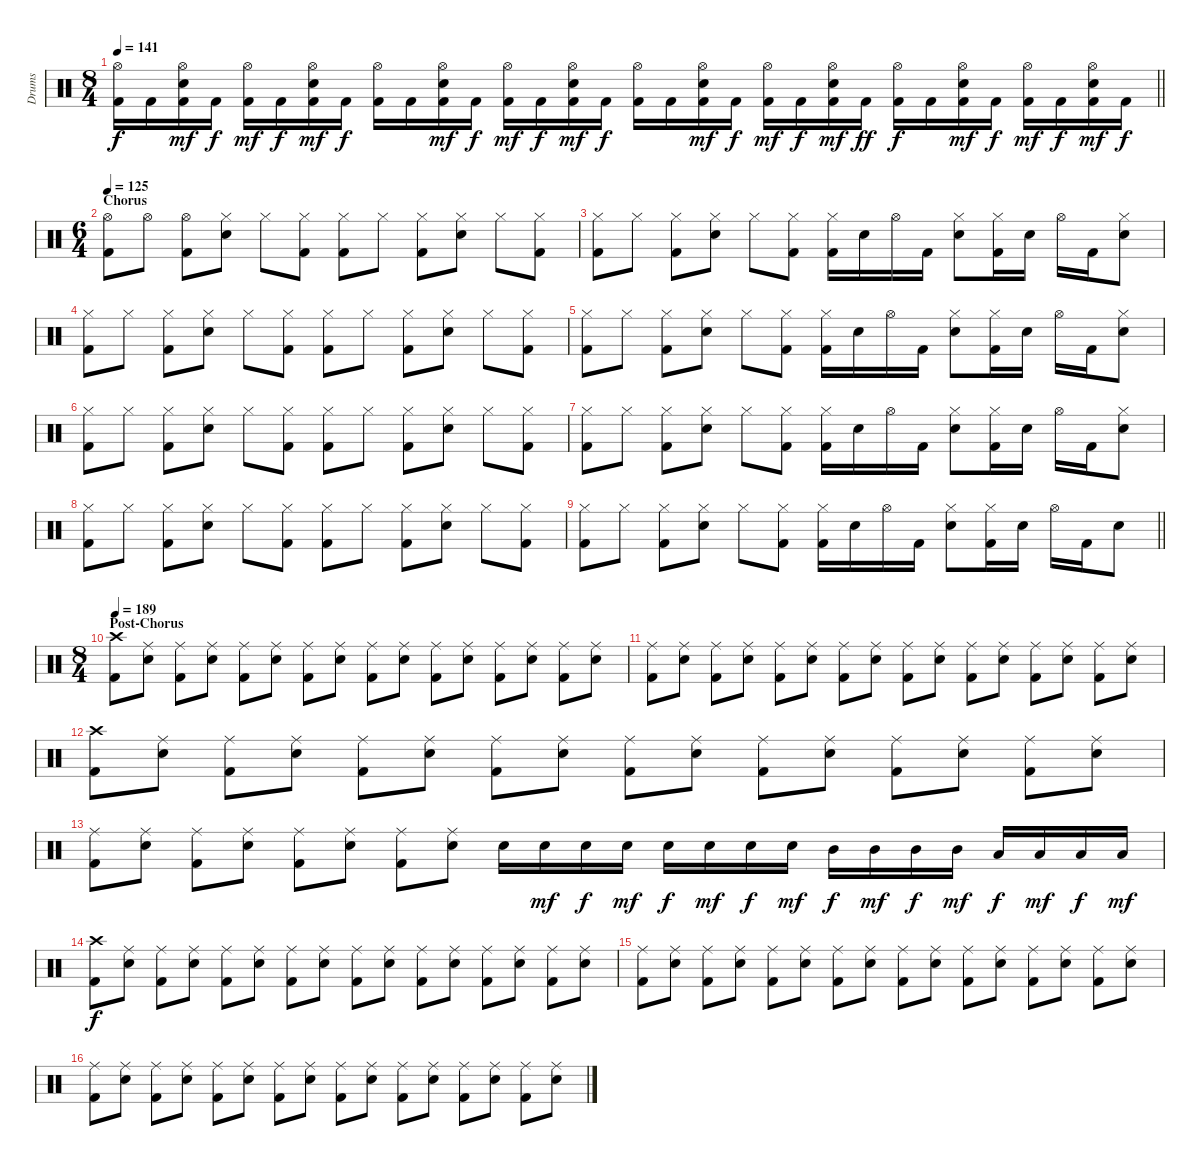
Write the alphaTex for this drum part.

\track ("Drums" "Drums") {instrument percussion}
\staff {score}
\articulation defaults
\ts (8 4)
\tempo 141
\clef neutral
\barLineRight lightlight
\ks c
("Hi-Hat (open)" "Kick (hit) 2").16{dy f} "Kick (hit) 2".16 ("Hi-Hat (open)" "Snare (hit) 2" "Kick (hit) 2").16{dy mf} "Kick (hit) 2".16{dy f} ("Hi-Hat (open)" "Kick (hit) 2").16{dy mf} "Kick (hit) 2".16{dy f} ("Hi-Hat (open)" "Snare (hit) 2" "Kick (hit) 2").16{dy mf} "Kick (hit) 2".16{dy f} ("Hi-Hat (open)" "Kick (hit) 2").16 "Kick (hit) 2".16 ("Hi-Hat (open)" "Snare (hit) 2" "Kick (hit) 2").16{dy mf} "Kick (hit) 2".16{dy f} ("Hi-Hat (open)" "Kick (hit) 2").16{dy mf} "Kick (hit) 2".16{dy f} ("Hi-Hat (open)" "Snare (hit) 2" "Kick (hit) 2").16{dy mf} "Kick (hit) 2".16{dy f} ("Hi-Hat (open)" "Kick (hit) 2").16 "Kick (hit) 2".16 ("Hi-Hat (open)" "Snare (hit) 2" "Kick (hit) 2").16{dy mf} "Kick (hit) 2".16{dy f} ("Hi-Hat (open)" "Kick (hit) 2").16{dy mf} "Kick (hit) 2".16{dy f} ("Hi-Hat (open)" "Snare (hit) 2" "Kick (hit) 2").16{dy mf} "Kick (hit) 2".16{dy ff} ("Hi-Hat (open)" "Kick (hit) 2").16{dy f} "Kick (hit) 2".16 ("Hi-Hat (open)" "Snare (hit) 2" "Kick (hit) 2").16{dy mf} "Kick (hit) 2".16{dy f} ("Hi-Hat (open)" "Kick (hit) 2").16{dy mf} "Kick (hit) 2".16{dy f} ("Hi-Hat (open)" "Snare (hit) 2" "Kick (hit) 2").16{dy mf} "Kick (hit) 2".16{dy f} |
\ts (6 4)
\section ("" "Chorus")
\tempo 125
("Hi-Hat (open)" "Kick (hit) 2").8 "Hi-Hat (open)".8 ("Hi-Hat (open)" "Kick (hit) 2").8 ("Hi-Hat (closed)" "Snare (hit) 2").8 "Hi-Hat (closed)".8 ("Hi-Hat (closed)" "Kick (hit) 2").8 ("Hi-Hat (closed)" "Kick (hit) 2").8 "Hi-Hat (closed)".8 ("Hi-Hat (closed)" "Kick (hit) 2").8 ("Hi-Hat (closed)" "Snare (hit) 2").8 "Hi-Hat (closed)".8 ("Hi-Hat (closed)" "Kick (hit) 2").8 |
("Hi-Hat (closed)" "Kick (hit) 2").8 "Hi-Hat (closed)".8 ("Hi-Hat (closed)" "Kick (hit) 2").8 ("Hi-Hat (closed)" "Snare (hit) 2").8 "Hi-Hat (closed)".8 ("Hi-Hat (closed)" "Kick (hit) 2").8 ("Hi-Hat (closed)" "Kick (hit) 2").16 "Snare (hit) 2".16 "Hi-Hat (open)".16 "Kick (hit) 2".16 ("Hi-Hat (closed)" "Snare (hit) 2").8 ("Hi-Hat (closed)" "Kick (hit) 2").16 "Snare (hit) 2".16 "Hi-Hat (open)".16 "Kick (hit) 2".16 ("Hi-Hat (closed)" "Snare (hit) 2").8 |
("Hi-Hat (closed)" "Kick (hit) 2").8 "Hi-Hat (closed)".8 ("Hi-Hat (closed)" "Kick (hit) 2").8 ("Hi-Hat (closed)" "Snare (hit) 2").8 "Hi-Hat (closed)".8 ("Hi-Hat (closed)" "Kick (hit) 2").8 ("Hi-Hat (closed)" "Kick (hit) 2").8 "Hi-Hat (closed)".8 ("Hi-Hat (closed)" "Kick (hit) 2").8 ("Hi-Hat (closed)" "Snare (hit) 2").8 "Hi-Hat (closed)".8 ("Hi-Hat (closed)" "Kick (hit) 2").8 |
("Hi-Hat (closed)" "Kick (hit) 2").8 "Hi-Hat (closed)".8 ("Hi-Hat (closed)" "Kick (hit) 2").8 ("Hi-Hat (closed)" "Snare (hit) 2").8 "Hi-Hat (closed)".8 ("Hi-Hat (closed)" "Kick (hit) 2").8 ("Hi-Hat (closed)" "Kick (hit) 2").16 "Snare (hit) 2".16 "Hi-Hat (open)".16 "Kick (hit) 2".16 ("Hi-Hat (closed)" "Snare (hit) 2").8 ("Hi-Hat (closed)" "Kick (hit) 2").16 "Snare (hit) 2".16 "Hi-Hat (open)".16 "Kick (hit) 2".16 ("Hi-Hat (closed)" "Snare (hit) 2").8 |
("Hi-Hat (closed)" "Kick (hit) 2").8 "Hi-Hat (closed)".8 ("Hi-Hat (closed)" "Kick (hit) 2").8 ("Hi-Hat (closed)" "Snare (hit) 2").8 "Hi-Hat (closed)".8 ("Hi-Hat (closed)" "Kick (hit) 2").8 ("Hi-Hat (closed)" "Kick (hit) 2").8 "Hi-Hat (closed)".8 ("Hi-Hat (closed)" "Kick (hit) 2").8 ("Hi-Hat (closed)" "Snare (hit) 2").8 "Hi-Hat (closed)".8 ("Hi-Hat (closed)" "Kick (hit) 2").8 |
("Hi-Hat (closed)" "Kick (hit) 2").8 "Hi-Hat (closed)".8 ("Hi-Hat (closed)" "Kick (hit) 2").8 ("Hi-Hat (closed)" "Snare (hit) 2").8 "Hi-Hat (closed)".8 ("Hi-Hat (closed)" "Kick (hit) 2").8 ("Hi-Hat (closed)" "Kick (hit) 2").16 "Snare (hit) 2".16 "Hi-Hat (open)".16 "Kick (hit) 2".16 ("Hi-Hat (closed)" "Snare (hit) 2").8 ("Hi-Hat (closed)" "Kick (hit) 2").16 "Snare (hit) 2".16 "Hi-Hat (open)".16 "Kick (hit) 2".16 ("Hi-Hat (closed)" "Snare (hit) 2").8 |
("Hi-Hat (closed)" "Kick (hit) 2").8 "Hi-Hat (closed)".8 ("Hi-Hat (closed)" "Kick (hit) 2").8 ("Hi-Hat (closed)" "Snare (hit) 2").8 "Hi-Hat (closed)".8 ("Hi-Hat (closed)" "Kick (hit) 2").8 ("Hi-Hat (closed)" "Kick (hit) 2").8 "Hi-Hat (closed)".8 ("Hi-Hat (closed)" "Kick (hit) 2").8 ("Hi-Hat (closed)" "Snare (hit) 2").8 "Hi-Hat (closed)".8 ("Hi-Hat (closed)" "Kick (hit) 2").8 |
\barLineRight lightlight
("Hi-Hat (closed)" "Kick (hit) 2").8 "Hi-Hat (closed)".8 ("Hi-Hat (closed)" "Kick (hit) 2").8 ("Hi-Hat (closed)" "Snare (hit) 2").8 "Hi-Hat (closed)".8 ("Hi-Hat (closed)" "Kick (hit) 2").8 ("Hi-Hat (closed)" "Kick (hit) 2").16 "Snare (hit) 2".16 "Hi-Hat (open)".16 "Kick (hit) 2".16 ("Hi-Hat (closed)" "Snare (hit) 2").8 ("Hi-Hat (closed)" "Kick (hit) 2").16 "Snare (hit) 2".16 "Hi-Hat (open)".16 "Kick (hit) 2".16 "Snare (hit) 2".8 |
\ts (8 4)
\section ("" "Post-Chorus")
\tempo 189
("Crash high (hit)" "Kick (hit) 2").8 ("Ride (middle)" "Snare (hit) 2").8 ("Ride (middle)" "Kick (hit) 2").8 ("Ride (middle)" "Snare (hit) 2").8 ("Ride (middle)" "Kick (hit) 2").8 ("Ride (middle)" "Snare (hit) 2").8 ("Ride (middle)" "Kick (hit) 2").8 ("Ride (middle)" "Snare (hit) 2").8 ("Ride (middle)" "Kick (hit) 2").8 ("Ride (middle)" "Snare (hit) 2").8 ("Ride (middle)" "Kick (hit) 2").8 ("Ride (middle)" "Snare (hit) 2").8 ("Ride (middle)" "Kick (hit) 2").8 ("Ride (middle)" "Snare (hit) 2").8 ("Ride (middle)" "Kick (hit) 2").8 ("Ride (middle)" "Snare (hit) 2").8 |
("Ride (middle)" "Kick (hit) 2").8 ("Ride (middle)" "Snare (hit) 2").8 ("Ride (middle)" "Kick (hit) 2").8 ("Ride (middle)" "Snare (hit) 2").8 ("Ride (middle)" "Kick (hit) 2").8 ("Ride (middle)" "Snare (hit) 2").8 ("Ride (middle)" "Kick (hit) 2").8 ("Ride (middle)" "Snare (hit) 2").8 ("Ride (middle)" "Kick (hit) 2").8 ("Ride (middle)" "Snare (hit) 2").8 ("Ride (middle)" "Kick (hit) 2").8 ("Ride (middle)" "Snare (hit) 2").8 ("Ride (middle)" "Kick (hit) 2").8 ("Ride (middle)" "Snare (hit) 2").8 ("Ride (middle)" "Kick (hit) 2").8 ("Ride (middle)" "Snare (hit) 2").8 |
("Crash high (hit)" "Kick (hit) 2").8 ("Ride (middle)" "Snare (hit) 2").8 ("Ride (middle)" "Kick (hit) 2").8 ("Ride (middle)" "Snare (hit) 2").8 ("Ride (middle)" "Kick (hit) 2").8 ("Ride (middle)" "Snare (hit) 2").8 ("Ride (middle)" "Kick (hit) 2").8 ("Ride (middle)" "Snare (hit) 2").8 ("Ride (middle)" "Kick (hit) 2").8 ("Ride (middle)" "Snare (hit) 2").8 ("Ride (middle)" "Kick (hit) 2").8 ("Ride (middle)" "Snare (hit) 2").8 ("Ride (middle)" "Kick (hit) 2").8 ("Ride (middle)" "Snare (hit) 2").8 ("Ride (middle)" "Kick (hit) 2").8 ("Ride (middle)" "Snare (hit) 2").8 |
("Ride (middle)" "Kick (hit) 2").8 ("Ride (middle)" "Snare (hit) 2").8 ("Ride (middle)" "Kick (hit) 2").8 ("Ride (middle)" "Snare (hit) 2").8 ("Ride (middle)" "Kick (hit) 2").8 ("Ride (middle)" "Snare (hit) 2").8 ("Ride (middle)" "Kick (hit) 2").8 ("Ride (middle)" "Snare (hit) 2").8 "Snare (hit) 2".16 "Snare (hit) 2".16{dy mf} "Snare (hit) 2".16{dy f} "Snare (hit) 2".16{dy mf} "Snare (hit) 2".16{dy f} "Snare (hit) 2".16{dy mf} "Snare (hit) 2".16{dy f} "Snare (hit) 2".16{dy mf} "Mid Tom (hit)".16{dy f} "Mid Tom (hit)".16{dy mf} "Mid Tom (hit)".16{dy f} "Mid Tom (hit)".16{dy mf} "Low Tom (hit)".16{dy f} "Low Tom (hit)".16{dy mf} "Low Tom (hit)".16{dy f} "Low Tom (hit)".16{dy mf} |
("Crash high (hit)" "Kick (hit) 2").8{dy f} ("Ride (middle)" "Snare (hit) 2").8 ("Ride (middle)" "Kick (hit) 2").8 ("Ride (middle)" "Snare (hit) 2").8 ("Ride (middle)" "Kick (hit) 2").8 ("Ride (middle)" "Snare (hit) 2").8 ("Ride (middle)" "Kick (hit) 2").8 ("Ride (middle)" "Snare (hit) 2").8 ("Ride (middle)" "Kick (hit) 2").8 ("Ride (middle)" "Snare (hit) 2").8 ("Ride (middle)" "Kick (hit) 2").8 ("Ride (middle)" "Snare (hit) 2").8 ("Ride (middle)" "Kick (hit) 2").8 ("Ride (middle)" "Snare (hit) 2").8 ("Ride (middle)" "Kick (hit) 2").8 ("Ride (middle)" "Snare (hit) 2").8 |
("Ride (middle)" "Kick (hit) 2").8 ("Ride (middle)" "Snare (hit) 2").8 ("Ride (middle)" "Kick (hit) 2").8 ("Ride (middle)" "Snare (hit) 2").8 ("Ride (middle)" "Kick (hit) 2").8 ("Ride (middle)" "Snare (hit) 2").8 ("Ride (middle)" "Kick (hit) 2").8 ("Ride (middle)" "Snare (hit) 2").8 ("Ride (middle)" "Kick (hit) 2").8 ("Ride (middle)" "Snare (hit) 2").8 ("Ride (middle)" "Kick (hit) 2").8 ("Ride (middle)" "Snare (hit) 2").8 ("Ride (middle)" "Kick (hit) 2").8 ("Ride (middle)" "Snare (hit) 2").8 ("Ride (middle)" "Kick (hit) 2").8 ("Ride (middle)" "Snare (hit) 2").8 |
("Ride (middle)" "Kick (hit) 2").8 ("Ride (middle)" "Snare (hit) 2").8 ("Ride (middle)" "Kick (hit) 2").8 ("Ride (middle)" "Snare (hit) 2").8 ("Ride (middle)" "Kick (hit) 2").8 ("Ride (middle)" "Snare (hit) 2").8 ("Ride (middle)" "Kick (hit) 2").8 ("Ride (middle)" "Snare (hit) 2").8 ("Ride (middle)" "Kick (hit) 2").8 ("Ride (middle)" "Snare (hit) 2").8 ("Ride (middle)" "Kick (hit) 2").8 ("Ride (middle)" "Snare (hit) 2").8 ("Ride (middle)" "Kick (hit) 2").8 ("Ride (middle)" "Snare (hit) 2").8 ("Ride (middle)" "Kick (hit) 2").8 ("Ride (middle)" "Snare (hit) 2").8
